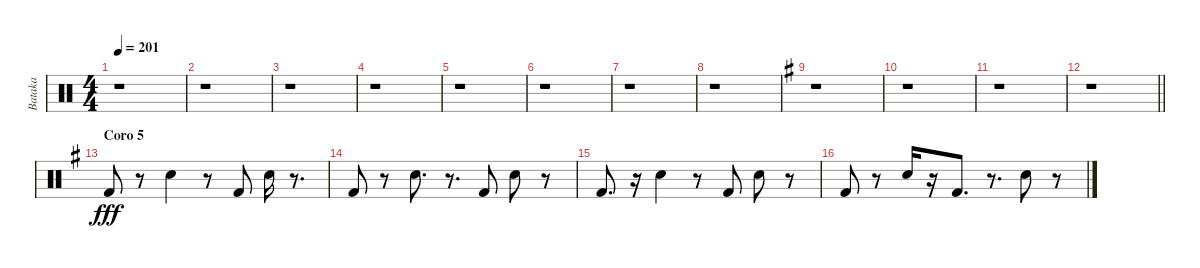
\track ("Bataka" "Bataka") {instrument percussion}
\staff {score}
\articulation defaults
\ts (4 4)
\tempo 201
\clef neutral
\ks c
r.1{dy fff} |
r.1 |
r.1 |
r.1 |
r.1 |
r.1 |
r.1 |
r.1 |
\ks g
r.1 |
r.1 |
r.1 |
\barLineRight lightlight
r.1 |
\section ("" "Coro 5")
"Kick (hit) 2".8 r.8 "Electric Snare (hit)".4 r.8 "Kick (hit) 2".8 "Electric Snare (hit)".16 r.8{d} |
"Kick (hit) 2".8 r.8 "Electric Snare (hit)".8{d} r.8{d} "Kick (hit) 2".8 "Electric Snare (hit)".8 r.8 |
"Kick (hit) 2".8{d} r.16 "Electric Snare (hit)".4 r.8 "Kick (hit) 2".8 "Electric Snare (hit)".8 r.8 |
"Kick (hit) 2".8 r.8 "Electric Snare (hit)".16 r.16 "Kick (hit) 2".8{d} r.8{d} "Electric Snare (hit)".8 r.8
